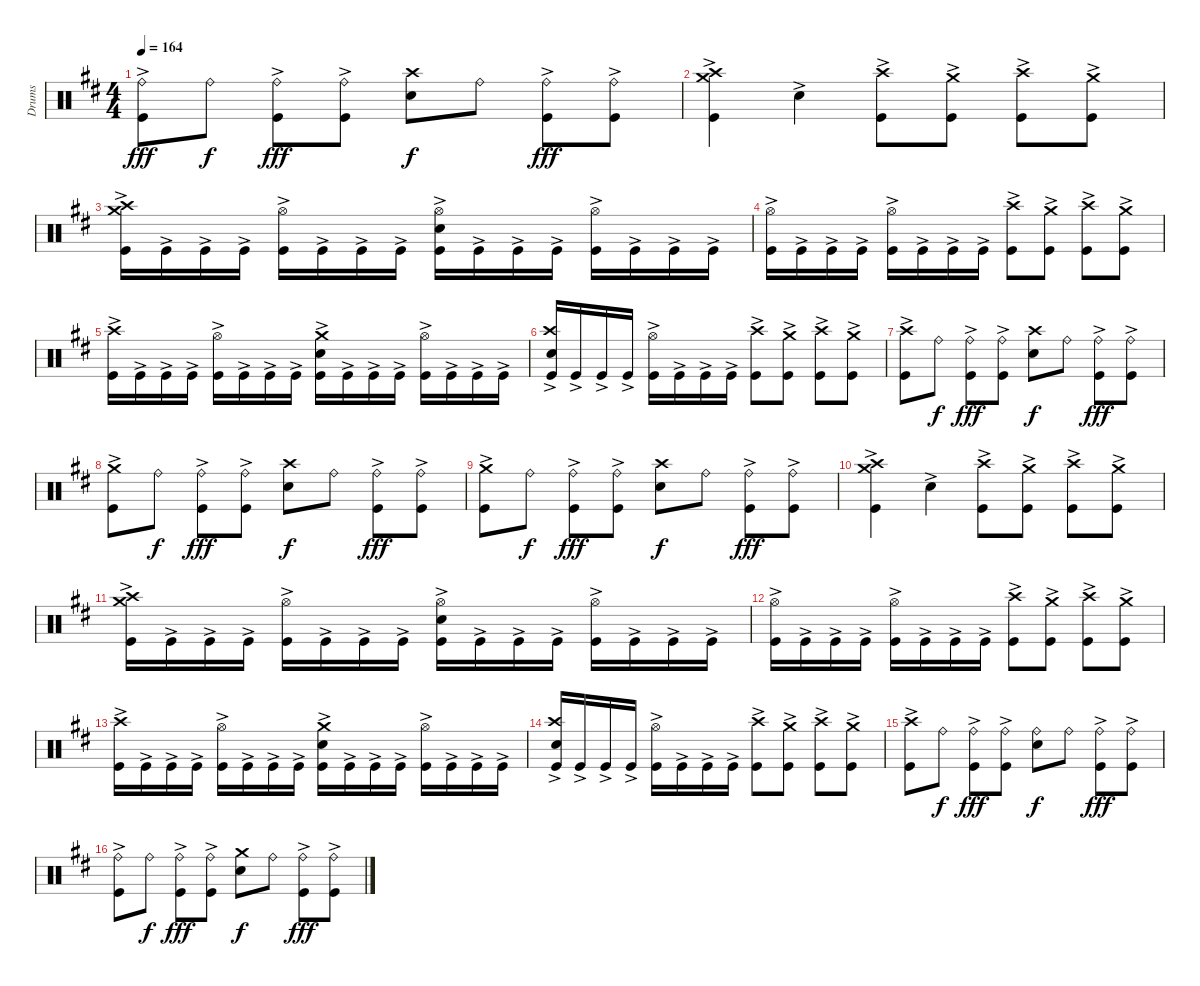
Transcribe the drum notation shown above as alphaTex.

\track ("Drums" "Drums") {instrument percussion}
\staff {score}
\articulation defaults
\ts (4 4)
\tempo 164
\clef neutral
\ks bminor
("Ride (bell)" "Kick (hit)"{ac}).8{dy fff} "Ride (bell)".8{dy f} ("Ride (bell)" "Kick (hit)"{ac}).8{dy fff} ("Ride (bell)" "Kick (hit)"{ac}).8 ("Crash high (hit)" "Snare (hit) 2").8{dy f} "Ride (bell)".8 ("Ride (bell)" "Kick (hit)"{ac}).8{dy fff} ("Ride (bell)" "Kick (hit)"{ac}).8 |
("Crash high (hit)" "Crash medium (hit)" "Kick (hit)"{ac}).4 "Snare (hit) 2"{ac}.4 ("Crash high (hit)" "Kick (hit)"{ac}).8 ("Crash medium (hit)" "Kick (hit)"{ac}).8 ("Crash high (hit)" "Kick (hit)"{ac}).8 ("Crash medium (hit)" "Kick (hit)"{ac}).8 |
("Crash high (hit)" "Crash medium (hit)" "Kick (hit)"{ac}).16 "Kick (hit)"{ac}.16 "Kick (hit)"{ac}.16 "Kick (hit)"{ac}.16 ("Hi-Hat (open)" "Kick (hit)"{ac}).16 "Kick (hit)"{ac}.16 "Kick (hit)"{ac}.16 "Kick (hit)"{ac}.16 ("Hi-Hat (open)" "Snare (hit) 2" "Kick (hit)"{ac}).16 "Kick (hit)"{ac}.16 "Kick (hit)"{ac}.16 "Kick (hit)"{ac}.16 ("Hi-Hat (open)" "Kick (hit)"{ac}).16 "Kick (hit)"{ac}.16 "Kick (hit)"{ac}.16 "Kick (hit)"{ac}.16 |
("Hi-Hat (open)" "Kick (hit)"{ac}).16 "Kick (hit)"{ac}.16 "Kick (hit)"{ac}.16 "Kick (hit)"{ac}.16 ("Hi-Hat (open)" "Kick (hit)"{ac}).16 "Kick (hit)"{ac}.16 "Kick (hit)"{ac}.16 "Kick (hit)"{ac}.16 ("Crash high (hit)" "Kick (hit)"{ac}).8 ("Crash medium (hit)" "Kick (hit)"{ac}).8 ("Crash high (hit)" "Kick (hit)"{ac}).8 ("Crash medium (hit)" "Kick (hit)"{ac}).8 |
("Crash high (hit)" "Kick (hit)"{ac}).16 "Kick (hit)"{ac}.16 "Kick (hit)"{ac}.16 "Kick (hit)"{ac}.16 ("Hi-Hat (open)" "Kick (hit)"{ac}).16 "Kick (hit)"{ac}.16 "Kick (hit)"{ac}.16 "Kick (hit)"{ac}.16 ("Crash medium (hit)" "Snare (hit) 2" "Kick (hit)"{ac}).16 "Kick (hit)"{ac}.16 "Kick (hit)"{ac}.16 "Kick (hit)"{ac}.16 ("Hi-Hat (open)" "Kick (hit)"{ac}).16 "Kick (hit)"{ac}.16 "Kick (hit)"{ac}.16 "Kick (hit)"{ac}.16 |
("Crash high (hit)" "Snare (hit) 2" "Kick (hit)"{ac}).16 "Kick (hit)"{ac}.16 "Kick (hit)"{ac}.16 "Kick (hit)"{ac}.16 ("Hi-Hat (open)" "Kick (hit)"{ac}).16 "Kick (hit)"{ac}.16 "Kick (hit)"{ac}.16 "Kick (hit)"{ac}.16 ("Crash high (hit)" "Kick (hit)"{ac}).8 ("Crash medium (hit)" "Kick (hit)"{ac}).8 ("Crash high (hit)" "Kick (hit)"{ac}).8 ("Crash medium (hit)" "Kick (hit)"{ac}).8 |
("Crash high (hit)" "Kick (hit)"{ac}).8 "Ride (bell)".8{dy f} ("Ride (bell)" "Kick (hit)"{ac}).8{dy fff} ("Ride (bell)" "Kick (hit)"{ac}).8 ("Crash high (hit)" "Snare (hit) 2").8{dy f} "Ride (bell)".8 ("Ride (bell)" "Kick (hit)"{ac}).8{dy fff} ("Ride (bell)" "Kick (hit)"{ac}).8 |
("Crash medium (hit)" "Kick (hit)"{ac}).8 "Ride (bell)".8{dy f} ("Ride (bell)" "Kick (hit)"{ac}).8{dy fff} ("Ride (bell)" "Kick (hit)"{ac}).8 ("Crash high (hit)" "Snare (hit) 2").8{dy f} "Ride (bell)".8 ("Ride (bell)" "Kick (hit)"{ac}).8{dy fff} ("Ride (bell)" "Kick (hit)"{ac}).8 |
("Crash medium (hit)" "Kick (hit)"{ac}).8 "Ride (bell)".8{dy f} ("Ride (bell)" "Kick (hit)"{ac}).8{dy fff} ("Ride (bell)" "Kick (hit)"{ac}).8 ("Crash high (hit)" "Snare (hit) 2").8{dy f} "Ride (bell)".8 ("Ride (bell)" "Kick (hit)"{ac}).8{dy fff} ("Ride (bell)" "Kick (hit)"{ac}).8 |
("Crash high (hit)" "Crash medium (hit)" "Kick (hit)"{ac}).4 "Snare (hit) 2"{ac}.4 ("Crash high (hit)" "Kick (hit)"{ac}).8 ("Crash medium (hit)" "Kick (hit)"{ac}).8 ("Crash high (hit)" "Kick (hit)"{ac}).8 ("Crash medium (hit)" "Kick (hit)"{ac}).8 |
("Crash high (hit)" "Crash medium (hit)" "Kick (hit)"{ac}).16 "Kick (hit)"{ac}.16 "Kick (hit)"{ac}.16 "Kick (hit)"{ac}.16 ("Hi-Hat (open)" "Kick (hit)"{ac}).16 "Kick (hit)"{ac}.16 "Kick (hit)"{ac}.16 "Kick (hit)"{ac}.16 ("Hi-Hat (open)" "Snare (hit) 2" "Kick (hit)"{ac}).16 "Kick (hit)"{ac}.16 "Kick (hit)"{ac}.16 "Kick (hit)"{ac}.16 ("Hi-Hat (open)" "Kick (hit)"{ac}).16 "Kick (hit)"{ac}.16 "Kick (hit)"{ac}.16 "Kick (hit)"{ac}.16 |
("Hi-Hat (open)" "Kick (hit)"{ac}).16 "Kick (hit)"{ac}.16 "Kick (hit)"{ac}.16 "Kick (hit)"{ac}.16 ("Hi-Hat (open)" "Kick (hit)"{ac}).16 "Kick (hit)"{ac}.16 "Kick (hit)"{ac}.16 "Kick (hit)"{ac}.16 ("Crash high (hit)" "Kick (hit)"{ac}).8 ("Crash medium (hit)" "Kick (hit)"{ac}).8 ("Crash high (hit)" "Kick (hit)"{ac}).8 ("Crash medium (hit)" "Kick (hit)"{ac}).8 |
("Crash high (hit)" "Kick (hit)"{ac}).16 "Kick (hit)"{ac}.16 "Kick (hit)"{ac}.16 "Kick (hit)"{ac}.16 ("Hi-Hat (open)" "Kick (hit)"{ac}).16 "Kick (hit)"{ac}.16 "Kick (hit)"{ac}.16 "Kick (hit)"{ac}.16 ("Crash medium (hit)" "Snare (hit) 2" "Kick (hit)"{ac}).16 "Kick (hit)"{ac}.16 "Kick (hit)"{ac}.16 "Kick (hit)"{ac}.16 ("Hi-Hat (open)" "Kick (hit)"{ac}).16 "Kick (hit)"{ac}.16 "Kick (hit)"{ac}.16 "Kick (hit)"{ac}.16 |
("Crash high (hit)" "Snare (hit) 2" "Kick (hit)"{ac}).16 "Kick (hit)"{ac}.16 "Kick (hit)"{ac}.16 "Kick (hit)"{ac}.16 ("Hi-Hat (open)" "Kick (hit)"{ac}).16 "Kick (hit)"{ac}.16 "Kick (hit)"{ac}.16 "Kick (hit)"{ac}.16 ("Crash high (hit)" "Kick (hit)"{ac}).8 ("Crash medium (hit)" "Kick (hit)"{ac}).8 ("Crash high (hit)" "Kick (hit)"{ac}).8 ("Crash medium (hit)" "Kick (hit)"{ac}).8 |
("Crash high (hit)" "Kick (hit)"{ac}).8 "Ride (bell)".8{dy f} ("Ride (bell)" "Kick (hit)"{ac}).8{dy fff} ("Ride (bell)" "Kick (hit)"{ac}).8 ("Ride (bell)" "Snare (hit) 2").8{dy f} "Ride (bell)".8 ("Ride (bell)" "Kick (hit)"{ac}).8{dy fff} ("Ride (bell)" "Kick (hit)"{ac}).8 |
("Ride (bell)" "Kick (hit)"{ac}).8 "Ride (bell)".8{dy f} ("Ride (bell)" "Kick (hit)"{ac}).8{dy fff} ("Ride (bell)" "Kick (hit)"{ac}).8 ("Crash medium (hit)" "Snare (hit) 2").8{dy f} "Ride (bell)".8 ("Ride (bell)" "Kick (hit)"{ac}).8{dy fff} ("Ride (bell)" "Kick (hit)"{ac}).8
